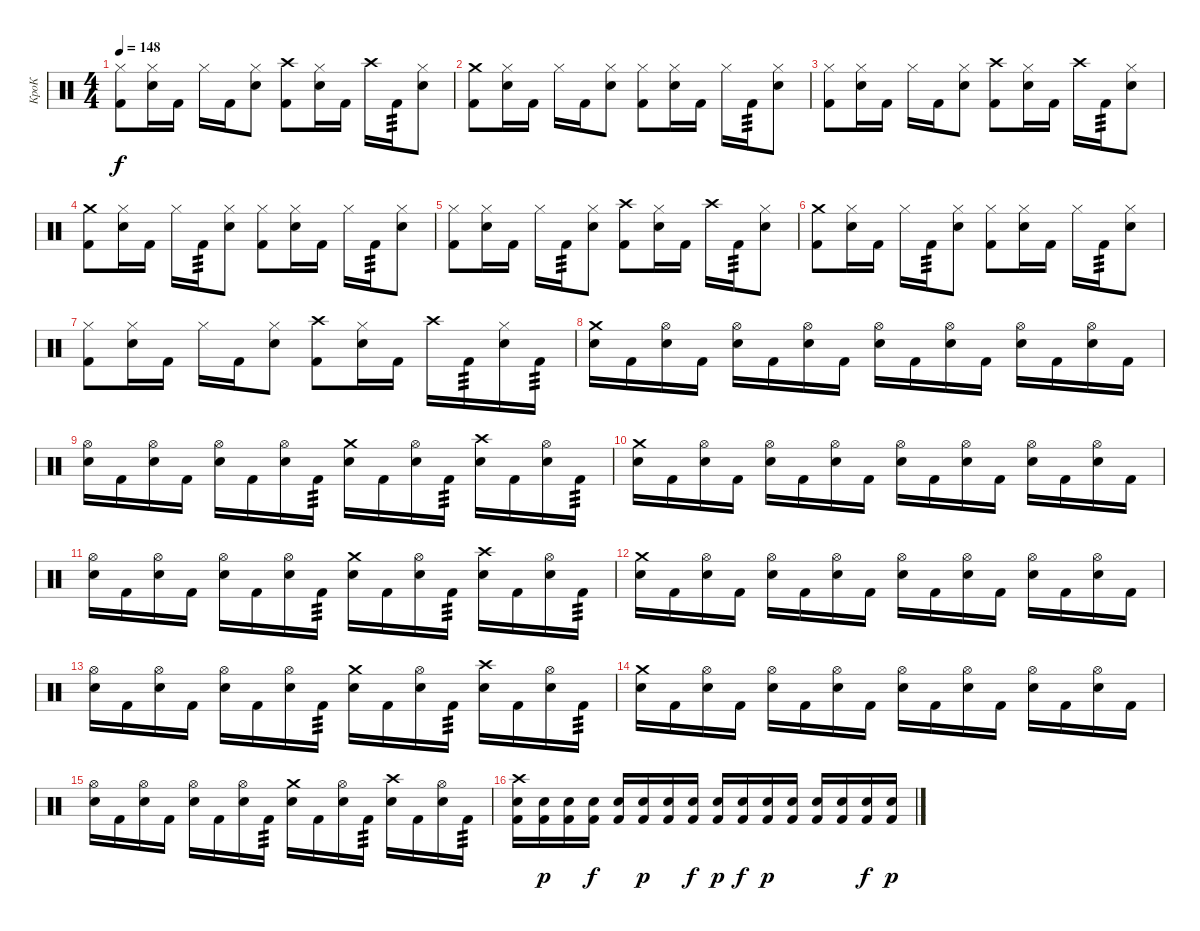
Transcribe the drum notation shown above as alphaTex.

\track ("КроК" "КроК") {instrument percussion}
\staff {score}
\articulation defaults
\ts (4 4)
\tempo 148
\clef neutral
\ks c
("Kick (hit) 2" "Hi-Hat (closed)").8{dy f} ("Electric Snare (hit)" "Hi-Hat (closed)").16 "Kick (hit) 2".16 "Hi-Hat (closed)".16 "Kick (hit) 2".16 ("Electric Snare (hit)" "Hi-Hat (closed)").8 ("Kick (hit) 2" "Crash high (hit)").8 ("Electric Snare (hit)" "Hi-Hat (closed)").16 "Kick (hit) 2".16 "Crash high (hit)".16 "Kick (hit) 2".16{tp 3} ("Electric Snare (hit)" "Hi-Hat (closed)").8 |
("Kick (hit) 2" "Crash medium (hit)").8 ("Electric Snare (hit)" "Hi-Hat (closed)").16 "Kick (hit) 2".16 "Hi-Hat (closed)".16 "Kick (hit) 2".16 ("Electric Snare (hit)" "Hi-Hat (closed)").8 ("Kick (hit) 2" "Hi-Hat (closed)").8 ("Electric Snare (hit)" "Hi-Hat (closed)").16 "Kick (hit) 2".16 "Hi-Hat (closed)".16 "Kick (hit) 2".16{tp 3} ("Electric Snare (hit)" "Hi-Hat (closed)").8 |
("Kick (hit) 2" "Hi-Hat (closed)").8 ("Electric Snare (hit)" "Hi-Hat (closed)").16 "Kick (hit) 2".16 "Hi-Hat (closed)".16 "Kick (hit) 2".16 ("Electric Snare (hit)" "Hi-Hat (closed)").8 ("Kick (hit) 2" "Crash high (hit)").8 ("Electric Snare (hit)" "Hi-Hat (closed)").16 "Kick (hit) 2".16 "Crash high (hit)".16 "Kick (hit) 2".16{tp 3} ("Electric Snare (hit)" "Hi-Hat (closed)").8 |
("Kick (hit) 2" "Crash medium (hit)").8 ("Electric Snare (hit)" "Hi-Hat (closed)").16 "Kick (hit) 2".16 "Hi-Hat (closed)".16 "Kick (hit) 2".16{tp 3} ("Electric Snare (hit)" "Hi-Hat (closed)").8 ("Kick (hit) 2" "Hi-Hat (closed)").8 ("Electric Snare (hit)" "Hi-Hat (closed)").16 "Kick (hit) 2".16 "Hi-Hat (closed)".16 "Kick (hit) 2".16{tp 3} ("Electric Snare (hit)" "Hi-Hat (closed)").8 |
("Kick (hit) 2" "Hi-Hat (closed)").8 ("Electric Snare (hit)" "Hi-Hat (closed)").16 "Kick (hit) 2".16 "Hi-Hat (closed)".16 "Kick (hit) 2".16{tp 3} ("Electric Snare (hit)" "Hi-Hat (closed)").8 ("Kick (hit) 2" "Crash high (hit)").8 ("Electric Snare (hit)" "Hi-Hat (closed)").16 "Kick (hit) 2".16 "Crash high (hit)".16 "Kick (hit) 2".16{tp 3} ("Electric Snare (hit)" "Hi-Hat (closed)").8 |
("Kick (hit) 2" "Crash medium (hit)").8 ("Electric Snare (hit)" "Hi-Hat (closed)").16 "Kick (hit) 2".16 "Hi-Hat (closed)".16 "Kick (hit) 2".16{tp 3} ("Electric Snare (hit)" "Hi-Hat (closed)").8 ("Kick (hit) 2" "Hi-Hat (closed)").8 ("Electric Snare (hit)" "Hi-Hat (closed)").16 "Kick (hit) 2".16 "Hi-Hat (closed)".16 "Kick (hit) 2".16{tp 3} ("Electric Snare (hit)" "Hi-Hat (closed)").8 |
("Kick (hit) 2" "Hi-Hat (closed)").8 ("Electric Snare (hit)" "Hi-Hat (closed)").16 "Kick (hit) 2".16 "Hi-Hat (closed)".16 "Kick (hit) 2".16 ("Electric Snare (hit)" "Hi-Hat (closed)").8 ("Kick (hit) 2" "Crash high (hit)").8 ("Electric Snare (hit)" "Hi-Hat (closed)").16 "Kick (hit) 2".16 "Crash high (hit)".16 "Kick (hit) 2".16{tp 3} ("Electric Snare (hit)" "Hi-Hat (closed)").16 "Kick (hit) 2".16{tp 3} |
("Electric Snare (hit)" "Crash medium (hit)").16 "Kick (hit) 2".16 ("Electric Snare (hit)" "Hi-Hat (open)").16 "Kick (hit) 2".16 ("Electric Snare (hit)" "Hi-Hat (open)").16 "Kick (hit) 2".16 ("Electric Snare (hit)" "Hi-Hat (open)").16 "Kick (hit) 2".16 ("Electric Snare (hit)" "Hi-Hat (open)").16 "Kick (hit) 2".16 ("Electric Snare (hit)" "Hi-Hat (open)").16 "Kick (hit) 2".16 ("Electric Snare (hit)" "Hi-Hat (open)").16 "Kick (hit) 2".16 ("Electric Snare (hit)" "Hi-Hat (open)").16 "Kick (hit) 2".16 |
("Electric Snare (hit)" "Hi-Hat (open)").16 "Kick (hit) 2".16 ("Electric Snare (hit)" "Hi-Hat (open)").16 "Kick (hit) 2".16 ("Electric Snare (hit)" "Hi-Hat (open)").16 "Kick (hit) 2".16 ("Electric Snare (hit)" "Hi-Hat (open)").16 "Kick (hit) 2".16{tp 3} ("Electric Snare (hit)" "Crash medium (hit)").16 "Kick (hit) 2".16 ("Electric Snare (hit)" "Hi-Hat (open)").16 "Kick (hit) 2".16{tp 3} ("Electric Snare (hit)" "Crash high (hit)").16 "Kick (hit) 2".16 ("Electric Snare (hit)" "Hi-Hat (open)").16 "Kick (hit) 2".16{tp 3} |
("Electric Snare (hit)" "Crash medium (hit)").16 "Kick (hit) 2".16 ("Electric Snare (hit)" "Hi-Hat (open)").16 "Kick (hit) 2".16 ("Electric Snare (hit)" "Hi-Hat (open)").16 "Kick (hit) 2".16 ("Electric Snare (hit)" "Hi-Hat (open)").16 "Kick (hit) 2".16 ("Electric Snare (hit)" "Hi-Hat (open)").16 "Kick (hit) 2".16 ("Electric Snare (hit)" "Hi-Hat (open)").16 "Kick (hit) 2".16 ("Electric Snare (hit)" "Hi-Hat (open)").16 "Kick (hit) 2".16 ("Electric Snare (hit)" "Hi-Hat (open)").16 "Kick (hit) 2".16 |
("Electric Snare (hit)" "Hi-Hat (open)").16 "Kick (hit) 2".16 ("Electric Snare (hit)" "Hi-Hat (open)").16 "Kick (hit) 2".16 ("Electric Snare (hit)" "Hi-Hat (open)").16 "Kick (hit) 2".16 ("Electric Snare (hit)" "Hi-Hat (open)").16 "Kick (hit) 2".16{tp 3} ("Electric Snare (hit)" "Crash medium (hit)").16 "Kick (hit) 2".16 ("Electric Snare (hit)" "Hi-Hat (open)").16 "Kick (hit) 2".16{tp 3} ("Electric Snare (hit)" "Crash high (hit)").16 "Kick (hit) 2".16 ("Electric Snare (hit)" "Hi-Hat (open)").16 "Kick (hit) 2".16{tp 3} |
("Electric Snare (hit)" "Crash medium (hit)").16 "Kick (hit) 2".16 ("Electric Snare (hit)" "Hi-Hat (open)").16 "Kick (hit) 2".16 ("Electric Snare (hit)" "Hi-Hat (open)").16 "Kick (hit) 2".16 ("Electric Snare (hit)" "Hi-Hat (open)").16 "Kick (hit) 2".16 ("Electric Snare (hit)" "Hi-Hat (open)").16 "Kick (hit) 2".16 ("Electric Snare (hit)" "Hi-Hat (open)").16 "Kick (hit) 2".16 ("Electric Snare (hit)" "Hi-Hat (open)").16 "Kick (hit) 2".16 ("Electric Snare (hit)" "Hi-Hat (open)").16 "Kick (hit) 2".16 |
("Electric Snare (hit)" "Hi-Hat (open)").16 "Kick (hit) 2".16 ("Electric Snare (hit)" "Hi-Hat (open)").16 "Kick (hit) 2".16 ("Electric Snare (hit)" "Hi-Hat (open)").16 "Kick (hit) 2".16 ("Electric Snare (hit)" "Hi-Hat (open)").16 "Kick (hit) 2".16{tp 3} ("Electric Snare (hit)" "Crash medium (hit)").16 "Kick (hit) 2".16 ("Electric Snare (hit)" "Hi-Hat (open)").16 "Kick (hit) 2".16{tp 3} ("Electric Snare (hit)" "Crash high (hit)").16 "Kick (hit) 2".16 ("Electric Snare (hit)" "Hi-Hat (open)").16 "Kick (hit) 2".16{tp 3} |
("Electric Snare (hit)" "Crash medium (hit)").16 "Kick (hit) 2".16 ("Electric Snare (hit)" "Hi-Hat (open)").16 "Kick (hit) 2".16 ("Electric Snare (hit)" "Hi-Hat (open)").16 "Kick (hit) 2".16 ("Electric Snare (hit)" "Hi-Hat (open)").16 "Kick (hit) 2".16 ("Electric Snare (hit)" "Hi-Hat (open)").16 "Kick (hit) 2".16 ("Electric Snare (hit)" "Hi-Hat (open)").16 "Kick (hit) 2".16 ("Electric Snare (hit)" "Hi-Hat (open)").16 "Kick (hit) 2".16 ("Electric Snare (hit)" "Hi-Hat (open)").16 "Kick (hit) 2".16 |
("Electric Snare (hit)" "Hi-Hat (open)").16 "Kick (hit) 2".16 ("Electric Snare (hit)" "Hi-Hat (open)").16 "Kick (hit) 2".16 ("Electric Snare (hit)" "Hi-Hat (open)").16 "Kick (hit) 2".16 ("Electric Snare (hit)" "Hi-Hat (open)").16 "Kick (hit) 2".16{tp 3} ("Electric Snare (hit)" "Crash medium (hit)").16 "Kick (hit) 2".16 ("Electric Snare (hit)" "Hi-Hat (open)").16 "Kick (hit) 2".16{tp 3} ("Electric Snare (hit)" "Crash high (hit)").16 "Kick (hit) 2".16 ("Electric Snare (hit)" "Hi-Hat (open)").16 "Kick (hit) 2".16{tp 3} |
("Electric Snare (hit)" "Kick (hit) 2" "Crash high (hit)").16 ("Electric Snare (hit)" "Kick (hit) 2").16{dy p} ("Electric Snare (hit)" "Kick (hit) 2").16 ("Electric Snare (hit)" "Kick (hit) 2").16{dy f} ("Electric Snare (hit)" "Kick (hit) 2").16 ("Electric Snare (hit)" "Kick (hit) 2").16{dy p} ("Electric Snare (hit)" "Kick (hit) 2").16 ("Electric Snare (hit)" "Kick (hit) 2").16{dy f} ("Electric Snare (hit)" "Kick (hit) 2").16{dy p} ("Electric Snare (hit)" "Kick (hit) 2").16{dy f} ("Electric Snare (hit)" "Kick (hit) 2").16{dy p} ("Electric Snare (hit)" "Kick (hit) 2").16 ("Electric Snare (hit)" "Kick (hit) 2").16 ("Electric Snare (hit)" "Kick (hit) 2").16 ("Electric Snare (hit)" "Kick (hit) 2").16{dy f} ("Electric Snare (hit)" "Kick (hit) 2").16{dy p}
